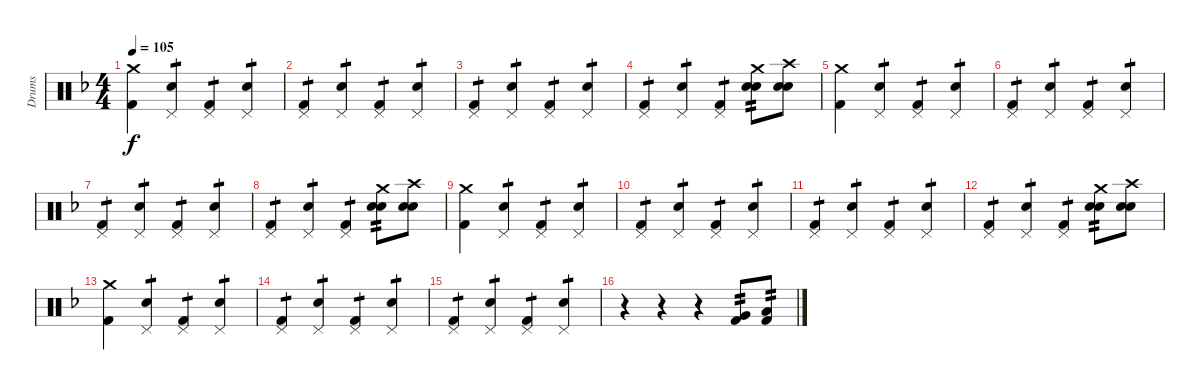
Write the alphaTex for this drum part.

\track ("Drums" "Drums") {instrument percussion}
\staff {score}
\articulation defaults
\ts (4 4)
\tempo 105
\clef neutral
\ks f
("Kick (hit) 2" "Crash medium (hit)").4{dy f} ("Snare (hit) 2" "Pedal Hi-Hat (hit)").4{tp 1} ("Kick (hit) 2" "Pedal Hi-Hat (hit)").4{tp 1} ("Snare (hit) 2" "Pedal Hi-Hat (hit)").4{tp 1} |
("Kick (hit) 2" "Pedal Hi-Hat (hit)").4{tp 1} ("Snare (hit) 2" "Pedal Hi-Hat (hit)").4{tp 1} ("Kick (hit) 2" "Pedal Hi-Hat (hit)").4{tp 1} ("Snare (hit) 2" "Pedal Hi-Hat (hit)").4{tp 1} |
("Kick (hit) 2" "Pedal Hi-Hat (hit)").4{tp 1} ("Snare (hit) 2" "Pedal Hi-Hat (hit)").4{tp 1} ("Kick (hit) 2" "Pedal Hi-Hat (hit)").4{tp 1} ("Snare (hit) 2" "Pedal Hi-Hat (hit)").4{tp 1} |
("Kick (hit) 2" "Pedal Hi-Hat (hit)").4{tp 1} ("Snare (hit) 2" "Pedal Hi-Hat (hit)").4{tp 1} ("Kick (hit) 2" "Pedal Hi-Hat (hit)").4{tp 1} ("Snare (hit) 2" "Snare (hit) 2" "Crash medium (hit)").8{tp 2} ("Snare (hit) 2" "Snare (hit) 2" "Crash high (hit)").8 |
("Kick (hit) 2" "Crash medium (hit)").4 ("Snare (hit) 2" "Pedal Hi-Hat (hit)").4{tp 1} ("Kick (hit) 2" "Pedal Hi-Hat (hit)").4{tp 1} ("Snare (hit) 2" "Pedal Hi-Hat (hit)").4{tp 1} |
("Kick (hit) 2" "Pedal Hi-Hat (hit)").4{tp 1} ("Snare (hit) 2" "Pedal Hi-Hat (hit)").4{tp 1} ("Kick (hit) 2" "Pedal Hi-Hat (hit)").4{tp 1} ("Snare (hit) 2" "Pedal Hi-Hat (hit)").4{tp 1} |
("Kick (hit) 2" "Pedal Hi-Hat (hit)").4{tp 1} ("Snare (hit) 2" "Pedal Hi-Hat (hit)").4{tp 1} ("Kick (hit) 2" "Pedal Hi-Hat (hit)").4{tp 1} ("Snare (hit) 2" "Pedal Hi-Hat (hit)").4{tp 1} |
("Kick (hit) 2" "Pedal Hi-Hat (hit)").4{tp 1} ("Snare (hit) 2" "Pedal Hi-Hat (hit)").4{tp 1} ("Kick (hit) 2" "Pedal Hi-Hat (hit)").4{tp 1} ("Snare (hit) 2" "Snare (hit) 2" "Crash medium (hit)").8{tp 2} ("Snare (hit) 2" "Snare (hit) 2" "Crash high (hit)").8 |
("Kick (hit) 2" "Crash medium (hit)").4 ("Snare (hit) 2" "Pedal Hi-Hat (hit)").4{tp 1} ("Kick (hit) 2" "Pedal Hi-Hat (hit)").4{tp 1} ("Snare (hit) 2" "Pedal Hi-Hat (hit)").4{tp 1} |
("Kick (hit) 2" "Pedal Hi-Hat (hit)").4{tp 1} ("Snare (hit) 2" "Pedal Hi-Hat (hit)").4{tp 1} ("Kick (hit) 2" "Pedal Hi-Hat (hit)").4{tp 1} ("Snare (hit) 2" "Pedal Hi-Hat (hit)").4{tp 1} |
("Kick (hit) 2" "Pedal Hi-Hat (hit)").4{tp 1} ("Snare (hit) 2" "Pedal Hi-Hat (hit)").4{tp 1} ("Kick (hit) 2" "Pedal Hi-Hat (hit)").4{tp 1} ("Snare (hit) 2" "Pedal Hi-Hat (hit)").4{tp 1} |
("Kick (hit) 2" "Pedal Hi-Hat (hit)").4{tp 1} ("Snare (hit) 2" "Pedal Hi-Hat (hit)").4{tp 1} ("Kick (hit) 2" "Pedal Hi-Hat (hit)").4{tp 1} ("Snare (hit) 2" "Snare (hit) 2" "Crash medium (hit)").8{tp 2} ("Snare (hit) 2" "Snare (hit) 2" "Crash high (hit)").8 |
("Kick (hit) 2" "Crash medium (hit)").4 ("Snare (hit) 2" "Pedal Hi-Hat (hit)").4{tp 1} ("Kick (hit) 2" "Pedal Hi-Hat (hit)").4{tp 1} ("Snare (hit) 2" "Pedal Hi-Hat (hit)").4{tp 1} |
("Kick (hit) 2" "Pedal Hi-Hat (hit)").4{tp 1} ("Snare (hit) 2" "Pedal Hi-Hat (hit)").4{tp 1} ("Kick (hit) 2" "Pedal Hi-Hat (hit)").4{tp 1} ("Snare (hit) 2" "Pedal Hi-Hat (hit)").4{tp 1} |
("Kick (hit) 2" "Pedal Hi-Hat (hit)").4{tp 1} ("Snare (hit) 2" "Pedal Hi-Hat (hit)").4{tp 1} ("Kick (hit) 2" "Pedal Hi-Hat (hit)").4{tp 1} ("Snare (hit) 2" "Pedal Hi-Hat (hit)").4{tp 1} |
r.4 r.4 r.4 ("Kick (hit) 2" "Very Low Tom (hit)").8{tp 2} ("Kick (hit) 2" "Low Floor Tom (hit)").8{tp 2}
